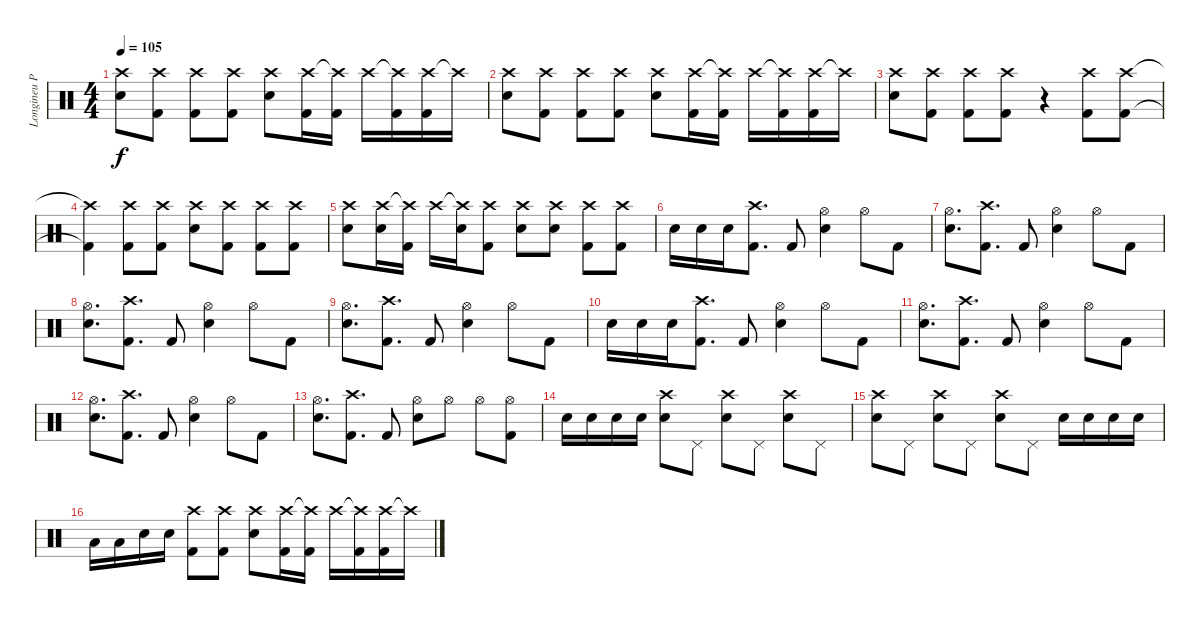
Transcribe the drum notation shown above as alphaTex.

\track ("Longineu Parsons III" "Longineu P") {instrument percussion}
\staff {score}
\articulation defaults
\ts (4 4)
\tempo 105
\clef neutral
\ks c
("Crash high (hit)" "Electric Snare (hit)").8{dy f} ("Crash high (hit)" "Kick (hit) 2").8 ("Crash high (hit)" "Kick (hit) 2").8 ("Crash high (hit)" "Kick (hit) 2").8 ("Crash high (hit)" "Electric Snare (hit)").8 ("Crash high (hit)" "Kick (hit) 2").16 ("Crash high (hit)"{t} "Kick (hit) 2").16 "Crash high (hit)".16 ("Crash high (hit)"{t} "Kick (hit) 2").16 ("Crash high (hit)" "Kick (hit) 2").16 "Crash high (hit)"{t}.16 |
("Crash high (hit)" "Electric Snare (hit)").8 ("Crash high (hit)" "Kick (hit) 2").8 ("Crash high (hit)" "Kick (hit) 2").8 ("Crash high (hit)" "Kick (hit) 2").8 ("Crash high (hit)" "Electric Snare (hit)").8 ("Crash high (hit)" "Kick (hit) 2").16 ("Crash high (hit)"{t} "Kick (hit) 2").16 "Crash high (hit)".16 ("Crash high (hit)"{t} "Kick (hit) 2").16 ("Crash high (hit)" "Kick (hit) 2").16 "Crash high (hit)"{t}.16 |
("Crash high (hit)" "Electric Snare (hit)").8 ("Crash high (hit)" "Kick (hit) 2").8 ("Crash high (hit)" "Kick (hit) 2").8 ("Crash high (hit)" "Kick (hit) 2").8 r.4 ("Crash high (hit)" "Kick (hit) 2").8 ("Crash high (hit)" "Kick (hit) 2").8 |
("Crash high (hit)"{t} "Kick (hit) 2"{t}).4 ("Crash high (hit)" "Kick (hit) 2").8 ("Crash high (hit)" "Kick (hit) 2").8 ("Crash high (hit)" "Electric Snare (hit)").8 ("Crash high (hit)" "Kick (hit) 2").8 ("Crash high (hit)" "Kick (hit) 2").8 ("Crash high (hit)" "Kick (hit) 2").8 |
("Crash high (hit)" "Electric Snare (hit)").8 ("Crash high (hit)" "Electric Snare (hit)").16 ("Crash high (hit)"{t} "Kick (hit) 2").16 "Crash high (hit)".16 ("Crash high (hit)"{t} "Electric Snare (hit)").16 ("Crash high (hit)" "Kick (hit) 2").8 ("Crash high (hit)" "Electric Snare (hit)").8 ("Crash high (hit)" "Electric Snare (hit)").8 ("Crash high (hit)" "Kick (hit) 2").8 ("Crash high (hit)" "Kick (hit) 2").8 |
"Electric Snare (hit)".16 "Electric Snare (hit)".16 "Electric Snare (hit)".16 ("Crash high (hit)" "Kick (hit) 2").8{d} "Kick (hit) 2".8 ("Hi-Hat (open)" "Electric Snare (hit)").4 "Hi-Hat (open)".8 "Kick (hit) 2".8 |
("Hi-Hat (open)" "Electric Snare (hit)").8{d} ("Crash high (hit)" "Kick (hit) 2").8{d} "Kick (hit) 2".8 ("Hi-Hat (open)" "Electric Snare (hit)").4 "Hi-Hat (open)".8 "Kick (hit) 2".8 |
("Hi-Hat (open)" "Electric Snare (hit)").8{d} ("Crash high (hit)" "Kick (hit) 2").8{d} "Kick (hit) 2".8 ("Hi-Hat (open)" "Electric Snare (hit)").4 "Hi-Hat (open)".8 "Kick (hit) 2".8 |
("Hi-Hat (open)" "Electric Snare (hit)").8{d} ("Crash high (hit)" "Kick (hit) 2").8{d} "Kick (hit) 2".8 ("Hi-Hat (open)" "Electric Snare (hit)").4 "Hi-Hat (open)".8 "Kick (hit) 2".8 |
"Electric Snare (hit)".16 "Electric Snare (hit)".16 "Electric Snare (hit)".16 ("Crash high (hit)" "Kick (hit) 2").8{d} "Kick (hit) 2".8 ("Hi-Hat (open)" "Electric Snare (hit)").4 "Hi-Hat (open)".8 "Kick (hit) 2".8 |
("Hi-Hat (open)" "Electric Snare (hit)").8{d} ("Crash high (hit)" "Kick (hit) 2").8{d} "Kick (hit) 2".8 ("Hi-Hat (open)" "Electric Snare (hit)").4 "Hi-Hat (open)".8 "Kick (hit) 2".8 |
("Hi-Hat (open)" "Electric Snare (hit)").8{d} ("Crash high (hit)" "Kick (hit) 2").8{d} "Kick (hit) 2".8 ("Hi-Hat (open)" "Electric Snare (hit)").4 "Hi-Hat (open)".8 "Kick (hit) 2".8 |
("Hi-Hat (open)" "Electric Snare (hit)").8{d} ("Crash high (hit)" "Kick (hit) 2").8{d} "Kick (hit) 2".8 ("Hi-Hat (open)" "Electric Snare (hit)").8 "Hi-Hat (open)".8 "Hi-Hat (open)".8 ("Hi-Hat (open)" "Kick (hit) 2").8 |
"Electric Snare (hit)".16 "Electric Snare (hit)".16 "Electric Snare (hit)".16 "Electric Snare (hit)".16 ("Crash high (hit)" "Electric Snare (hit)").8 "Pedal Hi-Hat (hit)".8 ("Crash high (hit)" "Electric Snare (hit)").8 "Pedal Hi-Hat (hit)".8 ("Crash high (hit)" "Electric Snare (hit)").8 "Pedal Hi-Hat (hit)".8 |
("Crash high (hit)" "Electric Snare (hit)").8 "Pedal Hi-Hat (hit)".8 ("Crash high (hit)" "Electric Snare (hit)").8 "Pedal Hi-Hat (hit)".8 ("Crash high (hit)" "Electric Snare (hit)").8 "Pedal Hi-Hat (hit)".8 "Electric Snare (hit)".16 "Electric Snare (hit)".16 "Electric Snare (hit)".16 "Electric Snare (hit)".16 |
"Low Tom (hit)".16 "Low Tom (hit)".16 "Electric Snare (hit)".16 "Electric Snare (hit)".16 ("Crash high (hit)" "Kick (hit) 2").8 ("Crash high (hit)" "Kick (hit) 2").8 ("Crash high (hit)" "Electric Snare (hit)").8 ("Crash high (hit)" "Kick (hit) 2").16 ("Crash high (hit)"{t} "Kick (hit) 2").16 "Crash high (hit)".16 ("Crash high (hit)"{t} "Kick (hit) 2").16 ("Crash high (hit)" "Kick (hit) 2").16 "Crash high (hit)"{t}.16
